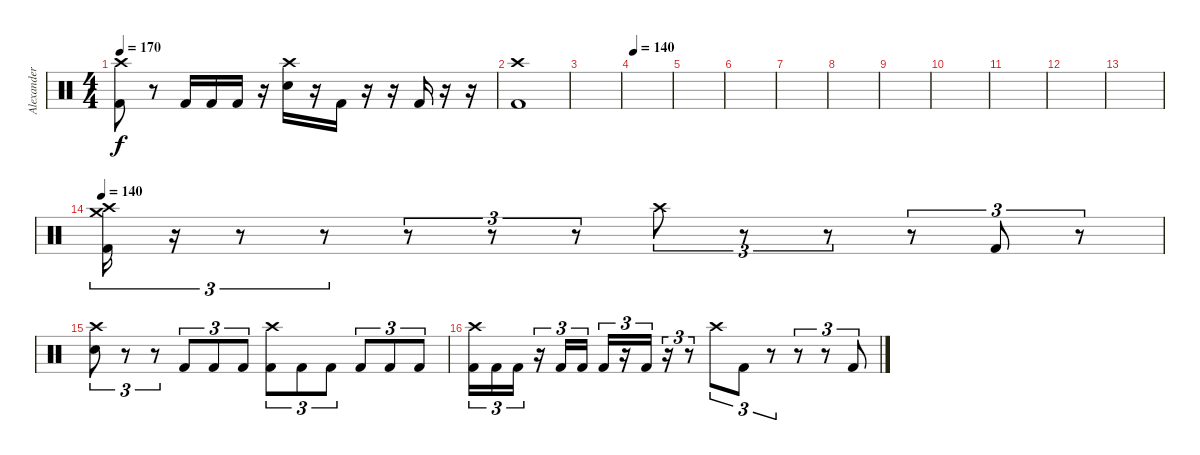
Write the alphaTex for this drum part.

\track ("Alexander Yazikov" "Alexander ") {instrument percussion}
\staff {score}
\articulation defaults
\ts (4 4)
\tempo 170
\clef neutral
\ks c
("Crash high (hit)" "Kick (hit) 2").8{dy f} r.8 "Kick (hit) 2".16 "Kick (hit) 2".16 "Kick (hit) 2".16 r.16 ("Crash high (hit)" "Electric Snare (hit)").16 r.16 "Kick (hit) 2".16 r.16 r.16 "Kick (hit) 2".16 r.16 r.16 |
("Crash high (hit)" "Kick (hit) 2").1 |
|
\tempo 140
|
|
|
|
|
|
|
|
|
|
\tempo 140
("Crash medium (hit)" "Crash high (hit)" "Kick (hit) 2").16{tu (3 2)} r.16{tu (3 2)} r.8{tu (3 2)} r.8{tu (3 2)} r.8{tu (3 2)} r.8{tu (3 2)} r.8{tu (3 2)} "Crash high (hit)".8{tu (3 2)} r.8{tu (3 2)} r.8{tu (3 2)} r.8{tu (3 2)} "Kick (hit) 2".8{tu (3 2)} r.8{tu (3 2)} |
("Crash high (hit)" "Electric Snare (hit)").8{tu (3 2)} r.8{tu (3 2)} r.8{tu (3 2)} "Kick (hit) 2".8{tu (3 2)} "Kick (hit) 2".8{tu (3 2)} "Kick (hit) 2".8{tu (3 2)} ("Crash high (hit)" "Kick (hit) 2").8{tu (3 2)} "Kick (hit) 2".8{tu (3 2)} "Kick (hit) 2".8{tu (3 2)} "Kick (hit) 2".8{tu (3 2)} "Kick (hit) 2".8{tu (3 2)} "Kick (hit) 2".8{tu (3 2)} |
("Crash high (hit)" "Kick (hit) 2").16{tu (3 2)} "Kick (hit) 2".16{tu (3 2)} "Kick (hit) 2".16{tu (3 2)} r.16{tu (3 2)} "Kick (hit) 2".16{tu (3 2)} "Kick (hit) 2".16{tu (3 2)} "Kick (hit) 2".16{tu (3 2)} r.16{tu (3 2)} "Kick (hit) 2".16{tu (3 2)} r.16{tu (3 2)} r.8{tu (3 2)} "Crash high (hit)".8{tu (3 2)} "Kick (hit) 2".8{tu (3 2)} r.8{tu (3 2)} r.8{tu (3 2)} r.8{tu (3 2)} "Kick (hit) 2".8{tu (3 2)}
